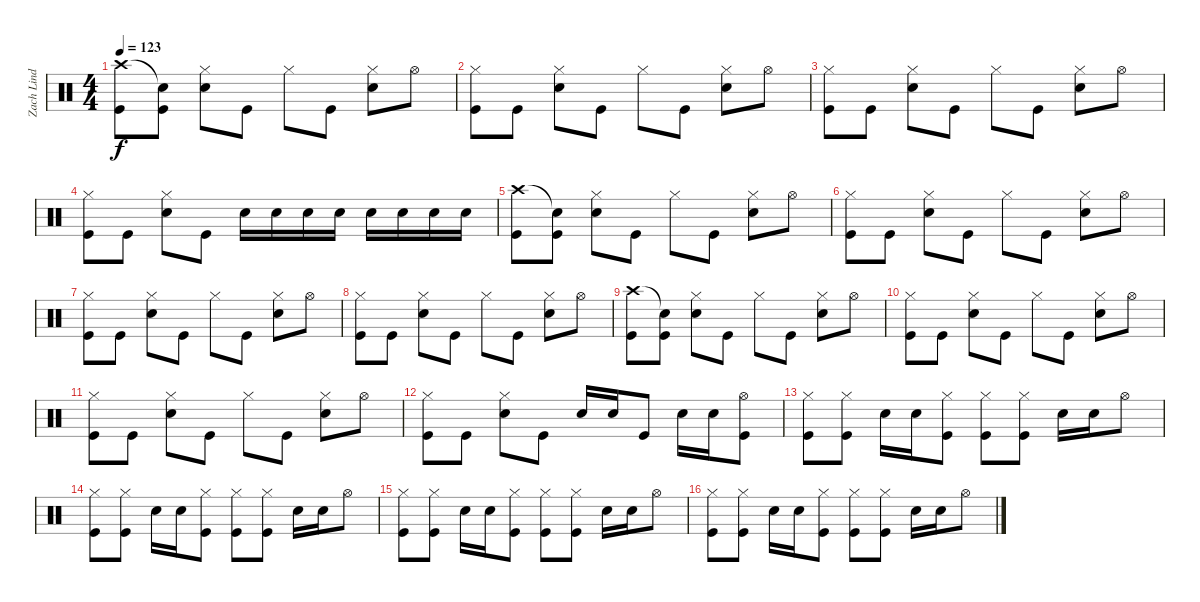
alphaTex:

\track ("Zach Lind (Drums)" "Zach Lind ") {instrument percussion}
\staff {score}
\articulation defaults
\ts (4 4)
\tempo 123
\clef neutral
\ks c
("Crash high (hit)" "Kick (hit)").8{dy f} ("Snare (hit)"{t} "Kick (hit)").8 ("Hi-Hat (closed)" "Snare (hit) 2").8 "Kick (hit)".8 "Hi-Hat (closed)".8 "Kick (hit)".8 ("Hi-Hat (closed)" "Snare (hit) 2").8 "Hi-Hat (open)".8 |
("Hi-Hat (closed)" "Kick (hit)").8 "Kick (hit)".8 ("Hi-Hat (closed)" "Snare (hit) 2").8 "Kick (hit)".8 "Hi-Hat (closed)".8 "Kick (hit)".8 ("Hi-Hat (closed)" "Snare (hit) 2").8 "Hi-Hat (open)".8 |
("Hi-Hat (closed)" "Kick (hit)").8 "Kick (hit)".8 ("Hi-Hat (closed)" "Snare (hit) 2").8 "Kick (hit)".8 "Hi-Hat (closed)".8 "Kick (hit)".8 ("Hi-Hat (closed)" "Snare (hit) 2").8 "Hi-Hat (open)".8 |
("Hi-Hat (closed)" "Kick (hit)").8 "Kick (hit)".8 ("Hi-Hat (closed)" "Snare (hit) 2").8 "Kick (hit)".8 "Snare (hit) 2".16 "Snare (hit) 2".16 "Snare (hit) 2".16 "Snare (hit) 2".16 "Snare (hit) 2".16 "Snare (hit) 2".16 "Snare (hit) 2".16 "Snare (hit) 2".16 |
("Crash high (hit)" "Kick (hit)").8 ("Snare (hit)"{t} "Kick (hit)").8 ("Hi-Hat (closed)" "Snare (hit) 2").8 "Kick (hit)".8 "Hi-Hat (closed)".8 "Kick (hit)".8 ("Hi-Hat (closed)" "Snare (hit) 2").8 "Hi-Hat (open)".8 |
("Hi-Hat (closed)" "Kick (hit)").8 "Kick (hit)".8 ("Hi-Hat (closed)" "Snare (hit) 2").8 "Kick (hit)".8 "Hi-Hat (closed)".8 "Kick (hit)".8 ("Hi-Hat (closed)" "Snare (hit) 2").8 "Hi-Hat (open)".8 |
("Hi-Hat (closed)" "Kick (hit)").8 "Kick (hit)".8 ("Hi-Hat (closed)" "Snare (hit) 2").8 "Kick (hit)".8 "Hi-Hat (closed)".8 "Kick (hit)".8 ("Hi-Hat (closed)" "Snare (hit) 2").8 "Hi-Hat (open)".8 |
("Hi-Hat (closed)" "Kick (hit)").8 "Kick (hit)".8 ("Hi-Hat (closed)" "Snare (hit) 2").8 "Kick (hit)".8 "Hi-Hat (closed)".8 "Kick (hit)".8 ("Hi-Hat (closed)" "Snare (hit) 2").8 "Hi-Hat (open)".8 |
("Crash high (hit)" "Kick (hit)").8 ("Snare (hit)"{t} "Kick (hit)").8 ("Hi-Hat (closed)" "Snare (hit) 2").8 "Kick (hit)".8 "Hi-Hat (closed)".8 "Kick (hit)".8 ("Hi-Hat (closed)" "Snare (hit) 2").8 "Hi-Hat (open)".8 |
("Hi-Hat (closed)" "Kick (hit)").8 "Kick (hit)".8 ("Hi-Hat (closed)" "Snare (hit) 2").8 "Kick (hit)".8 "Hi-Hat (closed)".8 "Kick (hit)".8 ("Hi-Hat (closed)" "Snare (hit) 2").8 "Hi-Hat (open)".8 |
("Hi-Hat (closed)" "Kick (hit)").8 "Kick (hit)".8 ("Hi-Hat (closed)" "Snare (hit) 2").8 "Kick (hit)".8 "Hi-Hat (closed)".8 "Kick (hit)".8 ("Hi-Hat (closed)" "Snare (hit) 2").8 "Hi-Hat (open)".8 |
("Hi-Hat (closed)" "Kick (hit)").8 "Kick (hit)".8 ("Hi-Hat (closed)" "Snare (hit) 2").8 "Kick (hit)".8 "Snare (hit) 2".16 "Snare (hit) 2".16 "Kick (hit)".8 "Snare (hit) 2".16 "Snare (hit) 2".16 ("Hi-Hat (open)" "Kick (hit)").8 |
("Hi-Hat (closed)" "Kick (hit)").8 ("Hi-Hat (closed)" "Kick (hit)").8 "Snare (hit) 2".16 "Snare (hit) 2".16 ("Hi-Hat (closed)" "Kick (hit)").8 ("Hi-Hat (closed)" "Kick (hit)").8 ("Hi-Hat (closed)" "Kick (hit)").8 "Snare (hit) 2".16 "Snare (hit) 2".16 "Hi-Hat (open)".8 |
("Hi-Hat (closed)" "Kick (hit)").8 ("Hi-Hat (closed)" "Kick (hit)").8 "Snare (hit) 2".16 "Snare (hit) 2".16 ("Hi-Hat (closed)" "Kick (hit)").8 ("Hi-Hat (closed)" "Kick (hit)").8 ("Hi-Hat (closed)" "Kick (hit)").8 "Snare (hit) 2".16 "Snare (hit) 2".16 "Hi-Hat (open)".8 |
("Hi-Hat (closed)" "Kick (hit)").8 ("Hi-Hat (closed)" "Kick (hit)").8 "Snare (hit) 2".16 "Snare (hit) 2".16 ("Hi-Hat (closed)" "Kick (hit)").8 ("Hi-Hat (closed)" "Kick (hit)").8 ("Hi-Hat (closed)" "Kick (hit)").8 "Snare (hit) 2".16 "Snare (hit) 2".16 "Hi-Hat (open)".8 |
("Hi-Hat (closed)" "Kick (hit)").8 ("Hi-Hat (closed)" "Kick (hit)").8 "Snare (hit) 2".16 "Snare (hit) 2".16 ("Hi-Hat (closed)" "Kick (hit)").8 ("Hi-Hat (closed)" "Kick (hit)").8 ("Hi-Hat (closed)" "Kick (hit)").8 "Snare (hit) 2".16 "Snare (hit) 2".16 "Hi-Hat (open)".8
